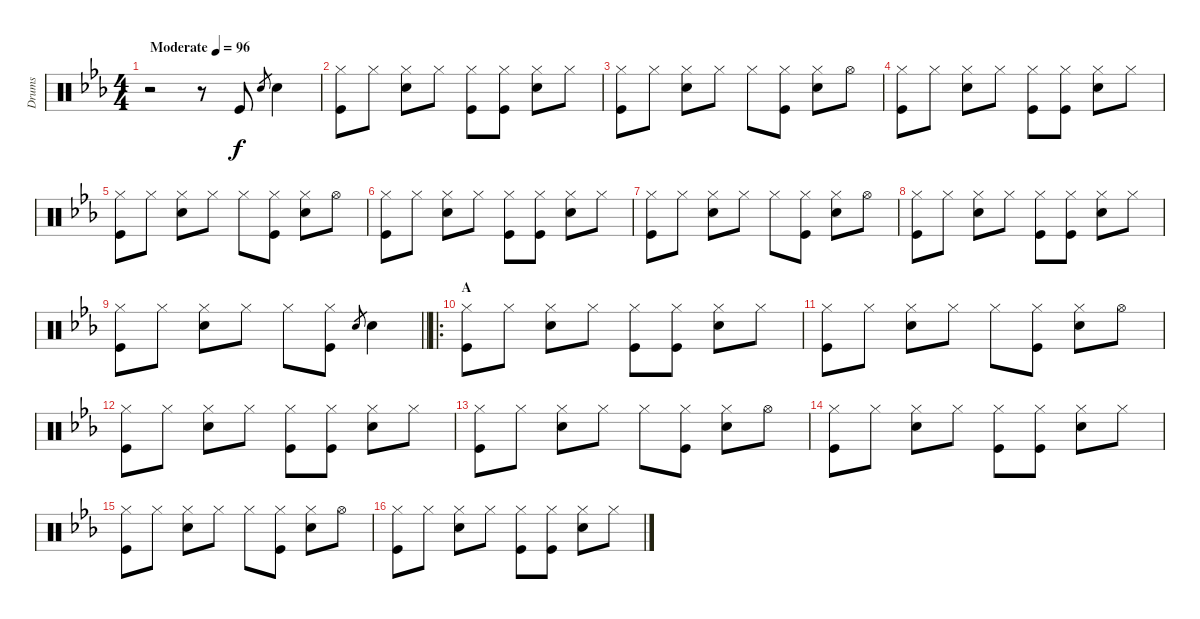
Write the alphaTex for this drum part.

\track ("Drums" "Drums") {instrument percussion}
\staff {score}
\articulation defaults
\ts (4 4)
\tempo (96 "Moderate")
\clef neutral
\ks cminor
r.2{dy f} r.8 "Kick (hit)".8 "Snare (hit) 2".8{gr} "Snare (hit) 2".4 |
("Hi-Hat (closed)" "Kick (hit)").8 "Hi-Hat (closed)".8 ("Hi-Hat (closed)" "Snare (hit) 2").8 "Hi-Hat (closed)".8 ("Hi-Hat (closed)" "Kick (hit)").8 ("Hi-Hat (closed)" "Kick (hit)").8 ("Hi-Hat (closed)" "Snare (hit) 2").8 "Hi-Hat (closed)".8 |
("Hi-Hat (closed)" "Kick (hit)").8 "Hi-Hat (closed)".8 ("Hi-Hat (closed)" "Snare (hit) 2").8 "Hi-Hat (closed)".8 "Hi-Hat (closed)".8 ("Hi-Hat (closed)" "Kick (hit)").8 ("Hi-Hat (closed)" "Snare (hit) 2").8 "Hi-Hat (open)".8 |
("Hi-Hat (closed)" "Kick (hit)").8 "Hi-Hat (closed)".8 ("Hi-Hat (closed)" "Snare (hit) 2").8 "Hi-Hat (closed)".8 ("Hi-Hat (closed)" "Kick (hit)").8 ("Hi-Hat (closed)" "Kick (hit)").8 ("Hi-Hat (closed)" "Snare (hit) 2").8 "Hi-Hat (closed)".8 |
("Hi-Hat (closed)" "Kick (hit)").8 "Hi-Hat (closed)".8 ("Hi-Hat (closed)" "Snare (hit) 2").8 "Hi-Hat (closed)".8 "Hi-Hat (closed)".8 ("Hi-Hat (closed)" "Kick (hit)").8 ("Hi-Hat (closed)" "Snare (hit) 2").8 "Hi-Hat (open)".8 |
("Hi-Hat (closed)" "Kick (hit)").8 "Hi-Hat (closed)".8 ("Hi-Hat (closed)" "Snare (hit) 2").8 "Hi-Hat (closed)".8 ("Hi-Hat (closed)" "Kick (hit)").8 ("Hi-Hat (closed)" "Kick (hit)").8 ("Hi-Hat (closed)" "Snare (hit) 2").8 "Hi-Hat (closed)".8 |
("Hi-Hat (closed)" "Kick (hit)").8 "Hi-Hat (closed)".8 ("Hi-Hat (closed)" "Snare (hit) 2").8 "Hi-Hat (closed)".8 "Hi-Hat (closed)".8 ("Hi-Hat (closed)" "Kick (hit)").8 ("Hi-Hat (closed)" "Snare (hit) 2").8 "Hi-Hat (open)".8 |
("Hi-Hat (closed)" "Kick (hit)").8 "Hi-Hat (closed)".8 ("Hi-Hat (closed)" "Snare (hit) 2").8 "Hi-Hat (closed)".8 ("Hi-Hat (closed)" "Kick (hit)").8 ("Hi-Hat (closed)" "Kick (hit)").8 ("Hi-Hat (closed)" "Snare (hit) 2").8 "Hi-Hat (closed)".8 |
\barLineRight lightlight
("Hi-Hat (closed)" "Kick (hit)").8 "Hi-Hat (closed)".8 ("Hi-Hat (closed)" "Snare (hit) 2").8 "Hi-Hat (closed)".8 "Hi-Hat (closed)".8 ("Hi-Hat (closed)" "Kick (hit)").8 "Snare (hit) 2".8{gr} "Snare (hit) 2".4 |
\ro
\section ("" "A")
("Hi-Hat (closed)" "Kick (hit)").8 "Hi-Hat (closed)".8 ("Hi-Hat (closed)" "Snare (hit) 2").8 "Hi-Hat (closed)".8 ("Hi-Hat (closed)" "Kick (hit)").8 ("Hi-Hat (closed)" "Kick (hit)").8 ("Hi-Hat (closed)" "Snare (hit) 2").8 "Hi-Hat (closed)".8 |
("Hi-Hat (closed)" "Kick (hit)").8 "Hi-Hat (closed)".8 ("Hi-Hat (closed)" "Snare (hit) 2").8 "Hi-Hat (closed)".8 "Hi-Hat (closed)".8 ("Hi-Hat (closed)" "Kick (hit)").8 ("Hi-Hat (closed)" "Snare (hit) 2").8 "Hi-Hat (open)".8 |
("Hi-Hat (closed)" "Kick (hit)").8 "Hi-Hat (closed)".8 ("Hi-Hat (closed)" "Snare (hit) 2").8 "Hi-Hat (closed)".8 ("Hi-Hat (closed)" "Kick (hit)").8 ("Hi-Hat (closed)" "Kick (hit)").8 ("Hi-Hat (closed)" "Snare (hit) 2").8 "Hi-Hat (closed)".8 |
("Hi-Hat (closed)" "Kick (hit)").8 "Hi-Hat (closed)".8 ("Hi-Hat (closed)" "Snare (hit) 2").8 "Hi-Hat (closed)".8 "Hi-Hat (closed)".8 ("Hi-Hat (closed)" "Kick (hit)").8 ("Hi-Hat (closed)" "Snare (hit) 2").8 "Hi-Hat (open)".8 |
("Hi-Hat (closed)" "Kick (hit)").8 "Hi-Hat (closed)".8 ("Hi-Hat (closed)" "Snare (hit) 2").8 "Hi-Hat (closed)".8 ("Hi-Hat (closed)" "Kick (hit)").8 ("Hi-Hat (closed)" "Kick (hit)").8 ("Hi-Hat (closed)" "Snare (hit) 2").8 "Hi-Hat (closed)".8 |
("Hi-Hat (closed)" "Kick (hit)").8 "Hi-Hat (closed)".8 ("Hi-Hat (closed)" "Snare (hit) 2").8 "Hi-Hat (closed)".8 "Hi-Hat (closed)".8 ("Hi-Hat (closed)" "Kick (hit)").8 ("Hi-Hat (closed)" "Snare (hit) 2").8 "Hi-Hat (open)".8 |
("Hi-Hat (closed)" "Kick (hit)").8 "Hi-Hat (closed)".8 ("Hi-Hat (closed)" "Snare (hit) 2").8 "Hi-Hat (closed)".8 ("Hi-Hat (closed)" "Kick (hit)").8 ("Hi-Hat (closed)" "Kick (hit)").8 ("Hi-Hat (closed)" "Snare (hit) 2").8 "Hi-Hat (closed)".8
